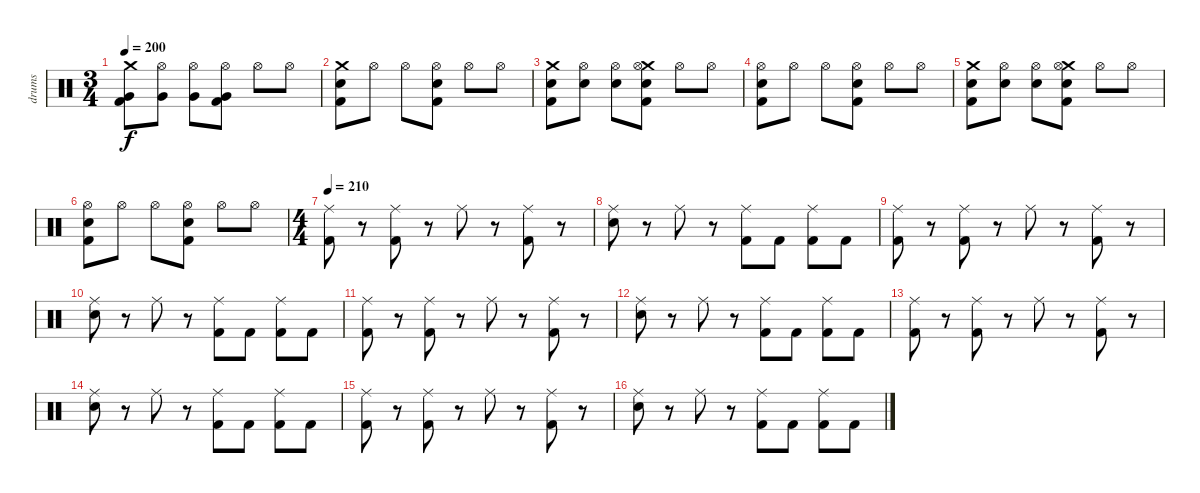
\track ("drums" "drums") {instrument percussion}
\staff {score}
\articulation defaults
\ts (3 4)
\tempo 200
\clef neutral
\ks c
("Crash medium (hit)" "Very Low Tom (hit)" "Kick (hit) 2").8{dy f} ("Hi-Hat (open)" "Very Low Tom (hit)").8 ("Hi-Hat (open)" "Very Low Tom (hit)").8 ("Hi-Hat (open)" "Very Low Tom (hit)" "Kick (hit) 2").8 "Hi-Hat (open)".8 "Hi-Hat (open)".8 |
("Crash medium (hit)" "Snare (hit) 2" "Kick (hit) 2").8 "Hi-Hat (open)".8 "Hi-Hat (open)".8 ("Hi-Hat (open)" "Snare (hit) 2" "Kick (hit) 2").8 "Hi-Hat (open)".8 "Hi-Hat (open)".8 |
("Crash medium (hit)" "Snare (hit) 2" "Kick (hit) 2").8 ("Hi-Hat (open)" "Snare (hit) 2").8 ("Hi-Hat (open)" "Snare (hit) 2").8 ("Crash medium (hit)" "Hi-Hat (open)" "Snare (hit) 2" "Kick (hit) 2").8 "Hi-Hat (open)".8 "Hi-Hat (open)".8 |
("Hi-Hat (open)" "Snare (hit) 2" "Kick (hit) 2").8 "Hi-Hat (open)".8 "Hi-Hat (open)".8 ("Hi-Hat (open)" "Snare (hit) 2" "Kick (hit) 2").8 "Hi-Hat (open)".8 "Hi-Hat (open)".8 |
("Crash medium (hit)" "Snare (hit) 2" "Kick (hit) 2").8 ("Hi-Hat (open)" "Snare (hit) 2").8 ("Hi-Hat (open)" "Snare (hit) 2").8 ("Crash medium (hit)" "Hi-Hat (open)" "Snare (hit) 2" "Kick (hit) 2").8 "Hi-Hat (open)".8 "Hi-Hat (open)".8 |
("Hi-Hat (open)" "Snare (hit) 2" "Kick (hit) 2").8 "Hi-Hat (open)".8 "Hi-Hat (open)".8 ("Hi-Hat (open)" "Snare (hit) 2" "Kick (hit) 2").8 "Hi-Hat (open)".8 "Hi-Hat (open)".8 |
\ts (4 4)
\tempo 210
("Ride (middle)" "Kick (hit) 2").8 r.8 ("Ride (middle)" "Kick (hit) 2").8 r.8 "Ride (middle)".8 r.8 ("Ride (middle)" "Kick (hit) 2").8 r.8 |
("Ride (middle)" "Snare (hit) 2").8 r.8 "Ride (middle)".8 r.8 ("Ride (middle)" "Kick (hit) 2").8 "Kick (hit) 2".8 ("Ride (middle)" "Kick (hit) 2").8 "Kick (hit) 2".8 |
("Ride (middle)" "Kick (hit) 2").8 r.8 ("Ride (middle)" "Kick (hit) 2").8 r.8 "Ride (middle)".8 r.8 ("Ride (middle)" "Kick (hit) 2").8 r.8 |
("Ride (middle)" "Snare (hit) 2").8 r.8 "Ride (middle)".8 r.8 ("Ride (middle)" "Kick (hit) 2").8 "Kick (hit) 2".8 ("Ride (middle)" "Kick (hit) 2").8 "Kick (hit) 2".8 |
("Ride (middle)" "Kick (hit) 2").8 r.8 ("Ride (middle)" "Kick (hit) 2").8 r.8 "Ride (middle)".8 r.8 ("Ride (middle)" "Kick (hit) 2").8 r.8 |
("Ride (middle)" "Snare (hit) 2").8 r.8 "Ride (middle)".8 r.8 ("Ride (middle)" "Kick (hit) 2").8 "Kick (hit) 2".8 ("Ride (middle)" "Kick (hit) 2").8 "Kick (hit) 2".8 |
("Ride (middle)" "Kick (hit) 2").8 r.8 ("Ride (middle)" "Kick (hit) 2").8 r.8 "Ride (middle)".8 r.8 ("Ride (middle)" "Kick (hit) 2").8 r.8 |
("Ride (middle)" "Snare (hit) 2").8 r.8 "Ride (middle)".8 r.8 ("Ride (middle)" "Kick (hit) 2").8 "Kick (hit) 2".8 ("Ride (middle)" "Kick (hit) 2").8 "Kick (hit) 2".8 |
("Ride (middle)" "Kick (hit) 2").8 r.8 ("Ride (middle)" "Kick (hit) 2").8 r.8 "Ride (middle)".8 r.8 ("Ride (middle)" "Kick (hit) 2").8 r.8 |
("Ride (middle)" "Snare (hit) 2").8 r.8 "Ride (middle)".8 r.8 ("Ride (middle)" "Kick (hit) 2").8 "Kick (hit) 2".8 ("Ride (middle)" "Kick (hit) 2").8 "Kick (hit) 2".8
